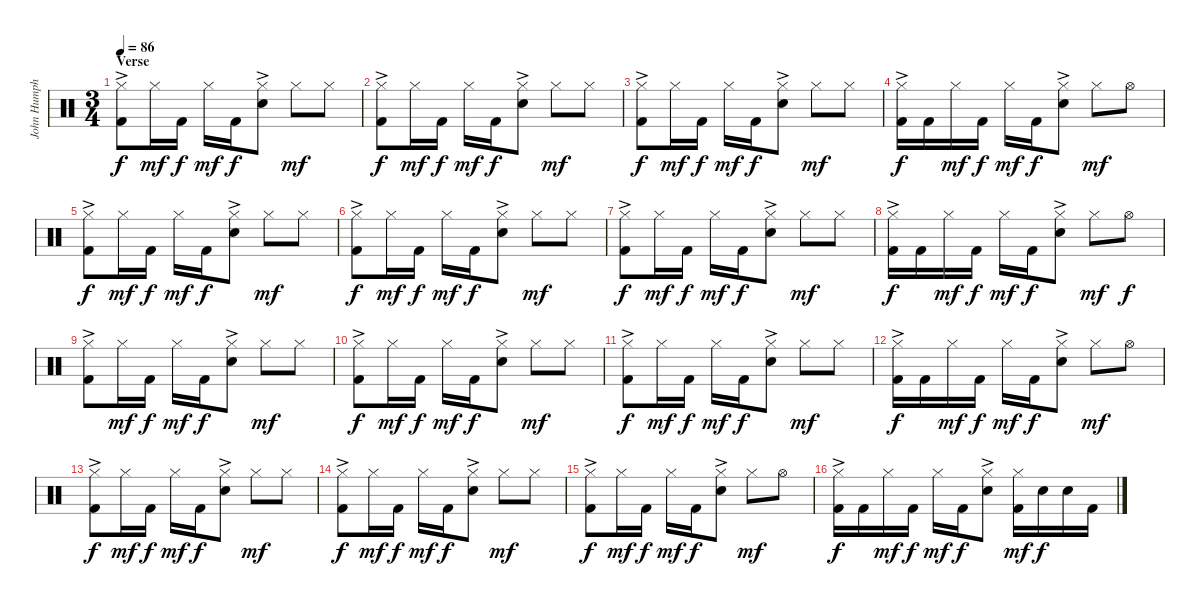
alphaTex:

\track ("John Humphrey" "John Humph") {instrument percussion}
\staff {score}
\articulation defaults
\ts (3 4)
\section ("" "Verse")
\tempo 86
\clef neutral
\ks c
("Hi-Hat (closed)"{ac} "Kick (hit) 2").8{dy f} "Hi-Hat (closed)".16{dy mf} "Kick (hit) 2".16{dy f} "Hi-Hat (closed)".16{dy mf} "Kick (hit) 2".16{dy f} ("Hi-Hat (closed)"{ac} "Snare (hit) 2").8 "Hi-Hat (closed)".8{dy mf} "Hi-Hat (closed)".8 |
("Hi-Hat (closed)"{ac} "Kick (hit) 2").8{dy f} "Hi-Hat (closed)".16{dy mf} "Kick (hit) 2".16{dy f} "Hi-Hat (closed)".16{dy mf} "Kick (hit) 2".16{dy f} ("Hi-Hat (closed)"{ac} "Snare (hit) 2").8 "Hi-Hat (closed)".8{dy mf} "Hi-Hat (closed)".8 |
("Hi-Hat (closed)"{ac} "Kick (hit) 2").8{dy f} "Hi-Hat (closed)".16{dy mf} "Kick (hit) 2".16{dy f} "Hi-Hat (closed)".16{dy mf} "Kick (hit) 2".16{dy f} ("Hi-Hat (closed)"{ac} "Snare (hit) 2").8 "Hi-Hat (closed)".8{dy mf} "Hi-Hat (closed)".8 |
("Hi-Hat (closed)"{ac} "Kick (hit) 2").16{dy f} "Kick (hit) 2".16 "Hi-Hat (closed)".16{dy mf} "Kick (hit) 2".16{dy f} "Hi-Hat (closed)".16{dy mf} "Kick (hit) 2".16{dy f} ("Hi-Hat (closed)"{ac} "Snare (hit) 2").8 "Hi-Hat (closed)".8{dy mf} "Hi-Hat (open)".8 |
("Hi-Hat (closed)"{ac} "Kick (hit) 2").8{dy f} "Hi-Hat (closed)".16{dy mf} "Kick (hit) 2".16{dy f} "Hi-Hat (closed)".16{dy mf} "Kick (hit) 2".16{dy f} ("Hi-Hat (closed)"{ac} "Snare (hit) 2").8 "Hi-Hat (closed)".8{dy mf} "Hi-Hat (closed)".8 |
("Hi-Hat (closed)"{ac} "Kick (hit) 2").8{dy f} "Hi-Hat (closed)".16{dy mf} "Kick (hit) 2".16{dy f} "Hi-Hat (closed)".16{dy mf} "Kick (hit) 2".16{dy f} ("Hi-Hat (closed)"{ac} "Snare (hit) 2").8 "Hi-Hat (closed)".8{dy mf} "Hi-Hat (closed)".8 |
("Hi-Hat (closed)"{ac} "Kick (hit) 2").8{dy f} "Hi-Hat (closed)".16{dy mf} "Kick (hit) 2".16{dy f} "Hi-Hat (closed)".16{dy mf} "Kick (hit) 2".16{dy f} ("Hi-Hat (closed)"{ac} "Snare (hit) 2").8 "Hi-Hat (closed)".8{dy mf} "Hi-Hat (closed)".8 |
("Hi-Hat (closed)"{ac} "Kick (hit) 2").16{dy f} "Kick (hit) 2".16 "Hi-Hat (closed)".16{dy mf} "Kick (hit) 2".16{dy f} "Hi-Hat (closed)".16{dy mf} "Kick (hit) 2".16{dy f} ("Hi-Hat (closed)"{ac} "Snare (hit) 2").8 "Hi-Hat (closed)".8{dy mf} "Hi-Hat (open)".8{dy f} |
("Hi-Hat (closed)"{ac} "Kick (hit) 2").8 "Hi-Hat (closed)".16{dy mf} "Kick (hit) 2".16{dy f} "Hi-Hat (closed)".16{dy mf} "Kick (hit) 2".16{dy f} ("Hi-Hat (closed)"{ac} "Snare (hit) 2").8 "Hi-Hat (closed)".8{dy mf} "Hi-Hat (closed)".8 |
("Hi-Hat (closed)"{ac} "Kick (hit) 2").8{dy f} "Hi-Hat (closed)".16{dy mf} "Kick (hit) 2".16{dy f} "Hi-Hat (closed)".16{dy mf} "Kick (hit) 2".16{dy f} ("Hi-Hat (closed)"{ac} "Snare (hit) 2").8 "Hi-Hat (closed)".8{dy mf} "Hi-Hat (closed)".8 |
("Hi-Hat (closed)"{ac} "Kick (hit) 2").8{dy f} "Hi-Hat (closed)".16{dy mf} "Kick (hit) 2".16{dy f} "Hi-Hat (closed)".16{dy mf} "Kick (hit) 2".16{dy f} ("Hi-Hat (closed)"{ac} "Snare (hit) 2").8 "Hi-Hat (closed)".8{dy mf} "Hi-Hat (closed)".8 |
("Hi-Hat (closed)"{ac} "Kick (hit) 2").16{dy f} "Kick (hit) 2".16 "Hi-Hat (closed)".16{dy mf} "Kick (hit) 2".16{dy f} "Hi-Hat (closed)".16{dy mf} "Kick (hit) 2".16{dy f} ("Hi-Hat (closed)"{ac} "Snare (hit) 2").8 "Hi-Hat (closed)".8{dy mf} "Hi-Hat (open)".8 |
("Hi-Hat (closed)"{ac} "Kick (hit) 2").8{dy f} "Hi-Hat (closed)".16{dy mf} "Kick (hit) 2".16{dy f} "Hi-Hat (closed)".16{dy mf} "Kick (hit) 2".16{dy f} ("Hi-Hat (closed)"{ac} "Snare (hit) 2").8 "Hi-Hat (closed)".8{dy mf} "Hi-Hat (closed)".8 |
("Hi-Hat (closed)"{ac} "Kick (hit) 2").8{dy f} "Hi-Hat (closed)".16{dy mf} "Kick (hit) 2".16{dy f} "Hi-Hat (closed)".16{dy mf} "Kick (hit) 2".16{dy f} ("Hi-Hat (closed)"{ac} "Snare (hit) 2").8 "Hi-Hat (closed)".8{dy mf} "Hi-Hat (closed)".8 |
("Hi-Hat (closed)"{ac} "Kick (hit) 2").8{dy f} "Hi-Hat (closed)".16{dy mf} "Kick (hit) 2".16{dy f} "Hi-Hat (closed)".16{dy mf} "Kick (hit) 2".16{dy f} ("Hi-Hat (closed)"{ac} "Snare (hit) 2").8 "Hi-Hat (closed)".8{dy mf} "Hi-Hat (open)".8 |
("Hi-Hat (closed)"{ac} "Kick (hit) 2").16{dy f} "Kick (hit) 2".16 "Hi-Hat (closed)".16{dy mf} "Kick (hit) 2".16{dy f} "Hi-Hat (closed)".16{dy mf} "Kick (hit) 2".16{dy f} ("Hi-Hat (closed)"{ac} "Snare (hit) 2").8 ("Hi-Hat (closed)" "Kick (hit) 2").16{dy mf} "Snare (hit) 2".16{dy f} "Snare (hit) 2".16 "Kick (hit) 2".16
